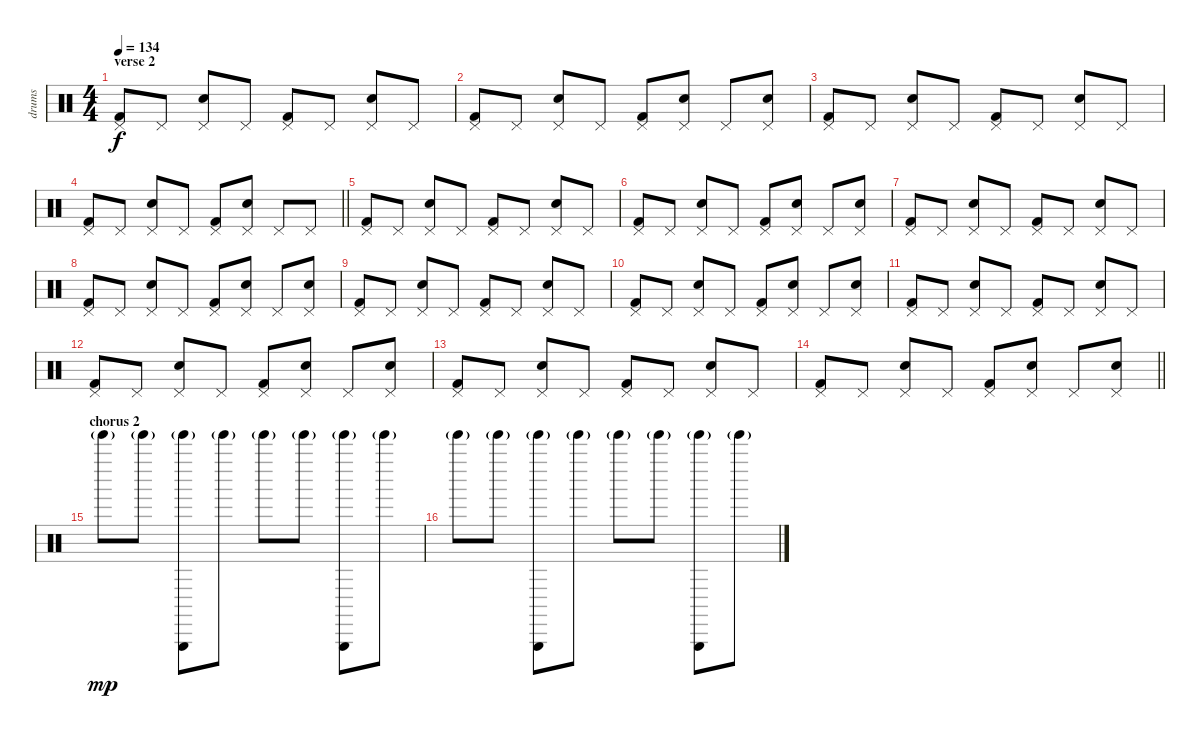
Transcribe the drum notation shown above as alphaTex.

\track ("drums" "drums") {instrument percussion}
\staff {score}
\articulation defaults
\ts (4 4)
\section ("" "verse 2")
\tempo 134
\clef neutral
\ks c
("Kick (hit) 2" "Pedal Hi-Hat (hit)").8{dy f} "Pedal Hi-Hat (hit)".8 ("Snare (hit) 2" "Pedal Hi-Hat (hit)").8 "Pedal Hi-Hat (hit)".8 ("Kick (hit) 2" "Pedal Hi-Hat (hit)").8 "Pedal Hi-Hat (hit)".8 ("Snare (hit) 2" "Pedal Hi-Hat (hit)").8 "Pedal Hi-Hat (hit)".8 |
("Kick (hit) 2" "Pedal Hi-Hat (hit)").8 "Pedal Hi-Hat (hit)".8 ("Snare (hit) 2" "Pedal Hi-Hat (hit)").8 "Pedal Hi-Hat (hit)".8 ("Kick (hit) 2" "Pedal Hi-Hat (hit)").8 ("Snare (hit) 2" "Pedal Hi-Hat (hit)").8 "Pedal Hi-Hat (hit)".8 ("Snare (hit) 2" "Pedal Hi-Hat (hit)").8 |
("Kick (hit) 2" "Pedal Hi-Hat (hit)").8 "Pedal Hi-Hat (hit)".8 ("Snare (hit) 2" "Pedal Hi-Hat (hit)").8 "Pedal Hi-Hat (hit)".8 ("Kick (hit) 2" "Pedal Hi-Hat (hit)").8 "Pedal Hi-Hat (hit)".8 ("Snare (hit) 2" "Pedal Hi-Hat (hit)").8 "Pedal Hi-Hat (hit)".8 |
\barLineRight lightlight
("Kick (hit) 2" "Pedal Hi-Hat (hit)").8 "Pedal Hi-Hat (hit)".8 ("Snare (hit) 2" "Pedal Hi-Hat (hit)").8 "Pedal Hi-Hat (hit)".8 ("Kick (hit) 2" "Pedal Hi-Hat (hit)").8 ("Snare (hit) 2" "Pedal Hi-Hat (hit)").8 "Pedal Hi-Hat (hit)".8 "Pedal Hi-Hat (hit)".8 |
("Kick (hit) 2" "Pedal Hi-Hat (hit)").8 "Pedal Hi-Hat (hit)".8 ("Snare (hit) 2" "Pedal Hi-Hat (hit)").8 "Pedal Hi-Hat (hit)".8 ("Kick (hit) 2" "Pedal Hi-Hat (hit)").8 "Pedal Hi-Hat (hit)".8 ("Snare (hit) 2" "Pedal Hi-Hat (hit)").8 "Pedal Hi-Hat (hit)".8 |
("Kick (hit) 2" "Pedal Hi-Hat (hit)").8 "Pedal Hi-Hat (hit)".8 ("Snare (hit) 2" "Pedal Hi-Hat (hit)").8 "Pedal Hi-Hat (hit)".8 ("Kick (hit) 2" "Pedal Hi-Hat (hit)").8 ("Snare (hit) 2" "Pedal Hi-Hat (hit)").8 "Pedal Hi-Hat (hit)".8 ("Snare (hit) 2" "Pedal Hi-Hat (hit)").8 |
("Kick (hit) 2" "Pedal Hi-Hat (hit)").8 "Pedal Hi-Hat (hit)".8 ("Snare (hit) 2" "Pedal Hi-Hat (hit)").8 "Pedal Hi-Hat (hit)".8 ("Kick (hit) 2" "Pedal Hi-Hat (hit)").8 "Pedal Hi-Hat (hit)".8 ("Snare (hit) 2" "Pedal Hi-Hat (hit)").8 "Pedal Hi-Hat (hit)".8 |
("Kick (hit) 2" "Pedal Hi-Hat (hit)").8 "Pedal Hi-Hat (hit)".8 ("Snare (hit) 2" "Pedal Hi-Hat (hit)").8 "Pedal Hi-Hat (hit)".8 ("Kick (hit) 2" "Pedal Hi-Hat (hit)").8 ("Snare (hit) 2" "Pedal Hi-Hat (hit)").8 "Pedal Hi-Hat (hit)".8 ("Snare (hit) 2" "Pedal Hi-Hat (hit)").8 |
("Kick (hit) 2" "Pedal Hi-Hat (hit)").8 "Pedal Hi-Hat (hit)".8 ("Snare (hit) 2" "Pedal Hi-Hat (hit)").8 "Pedal Hi-Hat (hit)".8 ("Kick (hit) 2" "Pedal Hi-Hat (hit)").8 "Pedal Hi-Hat (hit)".8 ("Snare (hit) 2" "Pedal Hi-Hat (hit)").8 "Pedal Hi-Hat (hit)".8 |
("Kick (hit) 2" "Pedal Hi-Hat (hit)").8 "Pedal Hi-Hat (hit)".8 ("Snare (hit) 2" "Pedal Hi-Hat (hit)").8 "Pedal Hi-Hat (hit)".8 ("Kick (hit) 2" "Pedal Hi-Hat (hit)").8 ("Snare (hit) 2" "Pedal Hi-Hat (hit)").8 "Pedal Hi-Hat (hit)".8 ("Snare (hit) 2" "Pedal Hi-Hat (hit)").8 |
("Kick (hit) 2" "Pedal Hi-Hat (hit)").8 "Pedal Hi-Hat (hit)".8 ("Snare (hit) 2" "Pedal Hi-Hat (hit)").8 "Pedal Hi-Hat (hit)".8 ("Kick (hit) 2" "Pedal Hi-Hat (hit)").8 "Pedal Hi-Hat (hit)".8 ("Snare (hit) 2" "Pedal Hi-Hat (hit)").8 "Pedal Hi-Hat (hit)".8 |
("Kick (hit) 2" "Pedal Hi-Hat (hit)").8 "Pedal Hi-Hat (hit)".8 ("Snare (hit) 2" "Pedal Hi-Hat (hit)").8 "Pedal Hi-Hat (hit)".8 ("Kick (hit) 2" "Pedal Hi-Hat (hit)").8 ("Snare (hit) 2" "Pedal Hi-Hat (hit)").8 "Pedal Hi-Hat (hit)".8 ("Snare (hit) 2" "Pedal Hi-Hat (hit)").8 |
("Kick (hit) 2" "Pedal Hi-Hat (hit)").8 "Pedal Hi-Hat (hit)".8 ("Snare (hit) 2" "Pedal Hi-Hat (hit)").8 "Pedal Hi-Hat (hit)".8 ("Kick (hit) 2" "Pedal Hi-Hat (hit)").8 "Pedal Hi-Hat (hit)".8 ("Snare (hit) 2" "Pedal Hi-Hat (hit)").8 "Pedal Hi-Hat (hit)".8 |
\barLineRight lightlight
("Kick (hit) 2" "Pedal Hi-Hat (hit)").8 "Pedal Hi-Hat (hit)".8 ("Snare (hit) 2" "Pedal Hi-Hat (hit)").8 "Pedal Hi-Hat (hit)".8 ("Kick (hit) 2" "Pedal Hi-Hat (hit)").8 ("Snare (hit) 2" "Pedal Hi-Hat (hit)").8 "Pedal Hi-Hat (hit)".8 ("Snare (hit) 2" "Pedal Hi-Hat (hit)").8 |
\section ("" "chorus 2")
"Tinkle Bell (hit)"{g}.8{dy mp} "Tinkle Bell (hit)"{g}.8 ("Triangle (hit)" "Tinkle Bell (hit)"{g}).8 "Tinkle Bell (hit)"{g}.8 "Tinkle Bell (hit)"{g}.8 "Tinkle Bell (hit)"{g}.8 ("Triangle (hit)" "Tinkle Bell (hit)"{g}).8 "Tinkle Bell (hit)"{g}.8 |
"Tinkle Bell (hit)"{g}.8 "Tinkle Bell (hit)"{g}.8 ("Triangle (hit)" "Tinkle Bell (hit)"{g}).8 "Tinkle Bell (hit)"{g}.8 "Tinkle Bell (hit)"{g}.8 "Tinkle Bell (hit)"{g}.8 ("Triangle (hit)" "Tinkle Bell (hit)"{g}).8 "Tinkle Bell (hit)"{g}.8
